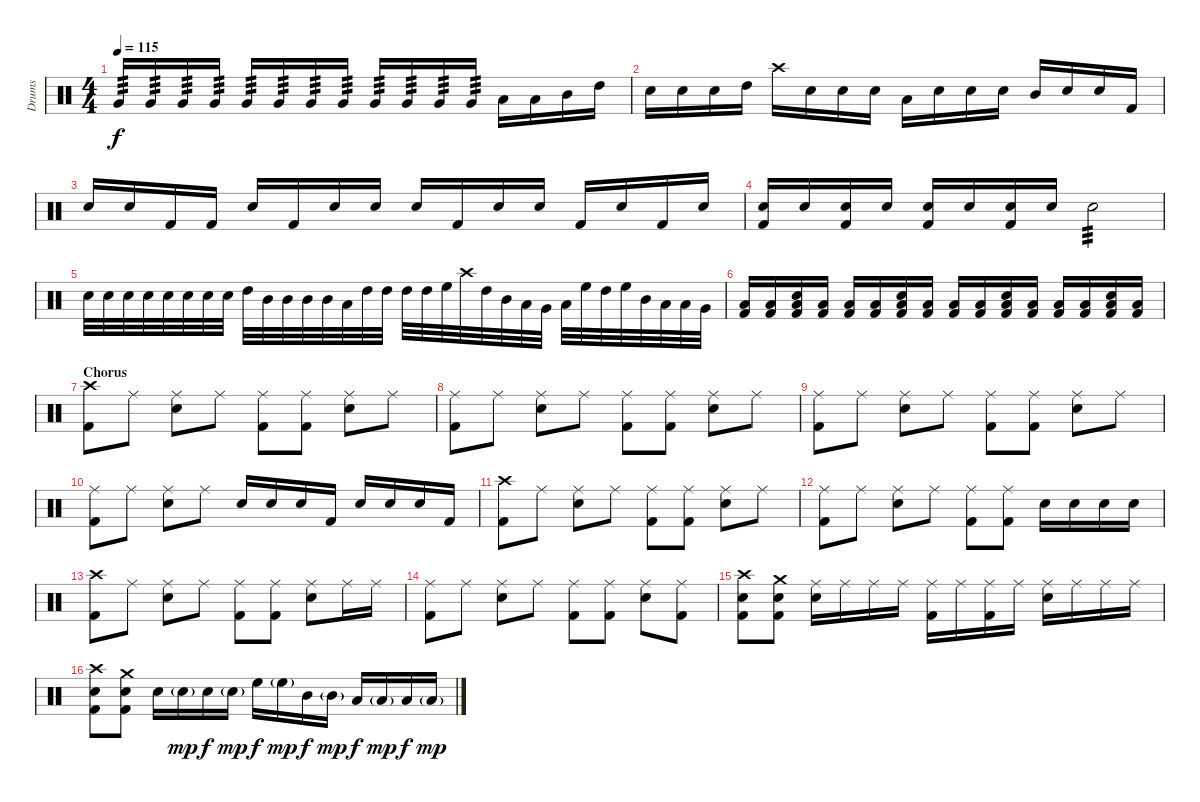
\track ("Drums" "Drums") {instrument percussion}
\staff {score}
\articulation defaults
\ts (4 4)
\tempo 115
\clef neutral
\ks c "Very Low Tom (hit)".16{tp 3 dy f} "Very Low Tom (hit)".16{tp 3} "Very Low Tom (hit)".16{tp 3} "Very Low Tom (hit)".16{tp 3} "Very Low Tom (hit)".16{tp 3} "Very Low Tom (hit)".16{tp 3} "Very Low Tom (hit)".16{tp 3} "Very Low Tom (hit)".16{tp 3} "Very Low Tom (hit)".16{tp 3} "Very Low Tom (hit)".16{tp 3} "Very Low Tom (hit)".16{tp 3} "Very Low Tom (hit)".16{tp 3} "Low Floor Tom (hit)".16 "Low Tom (hit)".16 "Mid Tom (hit)".16 "High Tom (hit)".16
|
"Electric Snare (hit)".16 "Electric Snare (hit)".16 "Electric Snare (hit)".16 "High Tom (hit)".16 "Crash high (hit)".16 "Electric Snare (hit)".16 "Electric Snare (hit)".16 "Electric Snare (hit)".16 "Low Tom (hit)".16 "Electric Snare (hit)".16 "Electric Snare (hit)".16 "Electric Snare (hit)".16 "Mid Tom (hit)".16 "Electric Snare (hit)".16 "Electric Snare (hit)".16 "Kick (hit) 2".16 |
"Electric Snare (hit)".16 "Electric Snare (hit)".16 "Kick (hit) 2".16 "Kick (hit) 2".16 "Electric Snare (hit)".16 "Kick (hit) 2".16 "Electric Snare (hit)".16 "Electric Snare (hit)".16 "Electric Snare (hit)".16 "Kick (hit) 2".16 "Electric Snare (hit)".16 "Electric Snare (hit)".16 "Kick (hit) 2".16 "Electric Snare (hit)".16 "Kick (hit) 2".16 "Electric Snare (hit)".16 |
("Electric Snare (hit)" "Kick (hit) 2").16 "Electric Snare (hit)".16 ("Electric Snare (hit)" "Kick (hit) 2").16 "Electric Snare (hit)".16 ("Electric Snare (hit)" "Kick (hit) 2").16 "Electric Snare (hit)".16 ("Electric Snare (hit)" "Kick (hit) 2").16 "Electric Snare (hit)".16 "Electric Snare (hit)".2{tp 3} |
"Electric Snare (hit)".32 "Electric Snare (hit)".32 "Electric Snare (hit)".32 "Electric Snare (hit)".32 "Electric Snare (hit)".32 "Electric Snare (hit)".32 "Electric Snare (hit)".32 "Electric Snare (hit)".32 "High Tom (hit)".32 "Mid Tom (hit)".32 "Mid Tom (hit)".32 "Mid Tom (hit)".32 "Mid Tom (hit)".32 "Low Tom (hit)".32 "High Tom (hit)".32 "High Tom (hit)".32 "High Tom (hit)".32 "High Tom (hit)".32 "High Floor Tom (hit)".32 "Crash high (hit)".32 "High Tom (hit)".32 "Mid Tom (hit)".32 "Low Tom (hit)".32 "Very Low Tom (hit)".32 "Low Floor Tom (hit)".32 "High Floor Tom (hit)".32 "High Tom (hit)".32 "High Floor Tom (hit)".32 "Mid Tom (hit)".32 "Low Tom (hit)".32 "Low Floor Tom (hit)".32 "Very Low Tom (hit)".32 |
("Kick (hit) 2" "Low Tom (hit)").16 ("Kick (hit) 2" "Low Tom (hit)").16 ("Kick (hit) 2" "Electric Snare (hit)" "Low Tom (hit)").16 ("Kick (hit) 2" "Low Tom (hit)").16 ("Kick (hit) 2" "Low Tom (hit)").16 ("Kick (hit) 2" "Low Tom (hit)").16 ("Kick (hit) 2" "Electric Snare (hit)" "Low Tom (hit)").16 ("Kick (hit) 2" "Low Tom (hit)").16 ("Kick (hit) 2" "Low Tom (hit)").16 ("Kick (hit) 2" "Low Tom (hit)").16 ("Kick (hit) 2" "Electric Snare (hit)" "Low Tom (hit)").16 ("Kick (hit) 2" "Low Tom (hit)").16 ("Kick (hit) 2" "Low Tom (hit)").16 ("Kick (hit) 2" "Low Tom (hit)").16 ("Kick (hit) 2" "Electric Snare (hit)" "Low Tom (hit)").16 ("Kick (hit) 2" "Low Tom (hit)").16 |
\section ("" "Chorus")
("Crash high (hit)" "Kick (hit) 2").8 "Ride (middle)".8 ("Ride (middle)" "Electric Snare (hit)").8 "Ride (middle)".8 ("Ride (middle)" "Kick (hit) 2").8 ("Ride (middle)" "Kick (hit) 2").8 ("Ride (middle)" "Electric Snare (hit)").8 "Ride (middle)".8 |
("Ride (middle)" "Kick (hit) 2").8 "Ride (middle)".8 ("Ride (middle)" "Electric Snare (hit)").8 "Ride (middle)".8 ("Ride (middle)" "Kick (hit) 2").8 ("Ride (middle)" "Kick (hit) 2").8 ("Ride (middle)" "Electric Snare (hit)").8 "Ride (middle)".8 |
("Ride (middle)" "Kick (hit) 2").8 "Ride (middle)".8 ("Ride (middle)" "Electric Snare (hit)").8 "Ride (middle)".8 ("Ride (middle)" "Kick (hit) 2").8 ("Ride (middle)" "Kick (hit) 2").8 ("Ride (middle)" "Electric Snare (hit)").8 "Ride (middle)".8 |
("Ride (middle)" "Kick (hit) 2").8 "Ride (middle)".8 ("Ride (middle)" "Electric Snare (hit)").8 "Ride (middle)".8 "Electric Snare (hit)".16 "Electric Snare (hit)".16 "Electric Snare (hit)".16 "Kick (hit) 2".16 "Electric Snare (hit)".16 "Electric Snare (hit)".16 "Electric Snare (hit)".16 "Kick (hit) 2".16 |
("Crash high (hit)" "Kick (hit) 2").8 "Ride (middle)".8 ("Ride (middle)" "Electric Snare (hit)").8 "Ride (middle)".8 ("Ride (middle)" "Kick (hit) 2").8 ("Ride (middle)" "Kick (hit) 2").8 ("Ride (middle)" "Electric Snare (hit)").8 "Ride (middle)".8 |
("Ride (middle)" "Kick (hit) 2").8 "Ride (middle)".8 ("Ride (middle)" "Electric Snare (hit)").8 "Ride (middle)".8 ("Ride (middle)" "Kick (hit) 2").8 ("Ride (middle)" "Kick (hit) 2").8 "Electric Snare (hit)".16 "Electric Snare (hit)".16 "Electric Snare (hit)".16 "Electric Snare (hit)".16 |
("Crash high (hit)" "Kick (hit) 2").8 "Ride (middle)".8 ("Ride (middle)" "Electric Snare (hit)").8 "Ride (middle)".8 ("Ride (middle)" "Kick (hit) 2").8 ("Ride (middle)" "Kick (hit) 2").8 ("Ride (middle)" "Electric Snare (hit)").8 "Ride (middle)".16 "Ride (middle)".16 |
("Ride (middle)" "Kick (hit) 2").8 "Ride (middle)".8 ("Ride (middle)" "Electric Snare (hit)").8 "Ride (middle)".8 ("Ride (middle)" "Kick (hit) 2").8 ("Ride (middle)" "Kick (hit) 2").8 ("Ride (middle)" "Electric Snare (hit)").8 ("Ride (middle)" "Kick (hit) 2").8 |
("Crash high (hit)" "Kick (hit) 2" "Electric Snare (hit)").8 ("Crash medium (hit)" "Kick (hit) 2" "Electric Snare (hit)").8 ("Ride (middle)" "Electric Snare (hit)").16 "Ride (middle)".16 "Ride (middle)".16 "Ride (middle)".16 ("Ride (middle)" "Kick (hit) 2").16 "Ride (middle)".16 ("Ride (middle)" "Kick (hit) 2").16 "Ride (middle)".16 ("Ride (middle)" "Electric Snare (hit)").16 "Ride (middle)".16 "Ride (middle)".16 "Ride (middle)".16 |
("Crash high (hit)" "Kick (hit) 2" "Electric Snare (hit)").8 ("Crash medium (hit)" "Kick (hit) 2" "Electric Snare (hit)").8 "Electric Snare (hit)".16 "Electric Snare (hit)"{g}.16{dy mp} "Electric Snare (hit)".16{dy f} "Electric Snare (hit)"{g}.16{dy mp} "High Floor Tom (hit)".16{dy f} "High Floor Tom (hit)"{g}.16{dy mp} "Mid Tom (hit)".16{dy f} "Mid Tom (hit)"{g}.16{dy mp} "Low Tom (hit)".16{dy f} "Low Tom (hit)"{g}.16{dy mp} "Low Floor Tom (hit)".16{dy f} "Low Floor Tom (hit)"{g}.16{dy mp}
